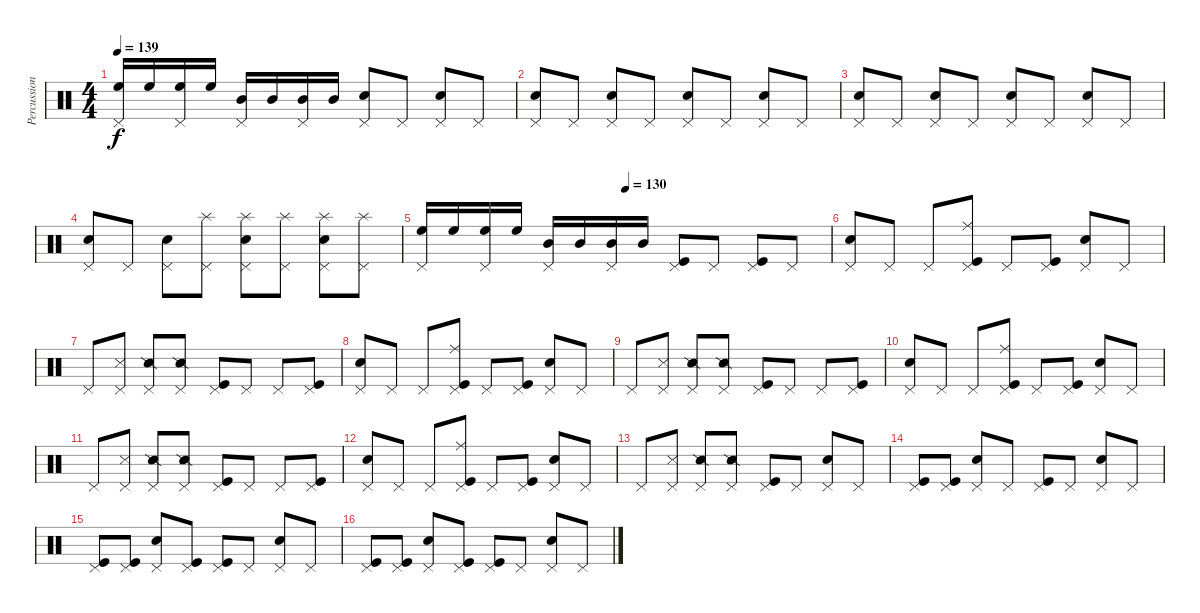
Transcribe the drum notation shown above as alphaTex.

\track ("Percussion" "Percussion") {instrument percussion}
\staff {score}
\articulation defaults
\ts (4 4)
\tempo 139
\clef neutral
\ks c
("High Floor Tom (hit)" "Pedal Hi-Hat (hit)").16{dy f} "High Floor Tom (hit)".16 ("High Floor Tom (hit)" "Pedal Hi-Hat (hit)").16 "High Floor Tom (hit)".16 ("Mid Tom (hit)" "Pedal Hi-Hat (hit)").16 "Mid Tom (hit)".16 ("Mid Tom (hit)" "Pedal Hi-Hat (hit)").16 "Mid Tom (hit)".16 ("Electric Snare (hit)" "Pedal Hi-Hat (hit)").8 "Pedal Hi-Hat (hit)".8 ("Electric Snare (hit)" "Pedal Hi-Hat (hit)").8 "Pedal Hi-Hat (hit)".8 |
("Electric Snare (hit)" "Pedal Hi-Hat (hit)").8 "Pedal Hi-Hat (hit)".8 ("Electric Snare (hit)" "Pedal Hi-Hat (hit)").8 "Pedal Hi-Hat (hit)".8 ("Electric Snare (hit)" "Pedal Hi-Hat (hit)").8 "Pedal Hi-Hat (hit)".8 ("Electric Snare (hit)" "Pedal Hi-Hat (hit)").8 "Pedal Hi-Hat (hit)".8 |
("Electric Snare (hit)" "Pedal Hi-Hat (hit)").8 "Pedal Hi-Hat (hit)".8 ("Electric Snare (hit)" "Pedal Hi-Hat (hit)").8 "Pedal Hi-Hat (hit)".8 ("Electric Snare (hit)" "Pedal Hi-Hat (hit)").8 "Pedal Hi-Hat (hit)".8 ("Electric Snare (hit)" "Pedal Hi-Hat (hit)").8 "Pedal Hi-Hat (hit)".8 |
("Electric Snare (hit)" "Pedal Hi-Hat (hit)").8 "Pedal Hi-Hat (hit)".8 ("Electric Snare (hit)" "Pedal Hi-Hat (hit)").8 ("Splash (hit)" "Pedal Hi-Hat (hit)").8 ("Splash (hit)" "Electric Snare (hit)" "Pedal Hi-Hat (hit)").8 ("Splash (hit)" "Pedal Hi-Hat (hit)").8 ("Splash (hit)" "Electric Snare (hit)" "Pedal Hi-Hat (hit)").8 ("Splash (hit)" "Pedal Hi-Hat (hit)").8 |
\tempo (130 0.5)
("High Floor Tom (hit)" "Pedal Hi-Hat (hit)").16 "High Floor Tom (hit)".16 ("High Floor Tom (hit)" "Pedal Hi-Hat (hit)").16 "High Floor Tom (hit)".16 ("Mid Tom (hit)" "Pedal Hi-Hat (hit)").16 "Mid Tom (hit)".16 ("Mid Tom (hit)" "Pedal Hi-Hat (hit)").16 "Mid Tom (hit)".16 ("Kick (hit)" "Pedal Hi-Hat (hit)").8 "Pedal Hi-Hat (hit)".8 ("Kick (hit)" "Pedal Hi-Hat (hit)").8 "Pedal Hi-Hat (hit)".8 |
("Electric Snare (hit)" "Pedal Hi-Hat (hit)").8 "Pedal Hi-Hat (hit)".8 "Pedal Hi-Hat (hit)".8 ("Ride (middle)" "Kick (hit)" "Pedal Hi-Hat (hit)").8 "Pedal Hi-Hat (hit)".8 ("Kick (hit)" "Pedal Hi-Hat (hit)").8 ("Electric Snare (hit)" "Pedal Hi-Hat (hit)").8 "Pedal Hi-Hat (hit)".8 |
"Pedal Hi-Hat (hit)".8 ("Snare (side stick) 3" "Pedal Hi-Hat (hit)").8 ("Snare (side stick) 2" "Pedal Hi-Hat (hit)").8 ("Snare (side stick) 2" "Pedal Hi-Hat (hit)").8 ("Kick (hit)" "Pedal Hi-Hat (hit)").8 "Pedal Hi-Hat (hit)".8 "Pedal Hi-Hat (hit)".8 ("Kick (hit)" "Pedal Hi-Hat (hit)").8 |
("Electric Snare (hit)" "Pedal Hi-Hat (hit)").8 "Pedal Hi-Hat (hit)".8 "Pedal Hi-Hat (hit)".8 ("Ride (middle)" "Kick (hit)" "Pedal Hi-Hat (hit)").8 "Pedal Hi-Hat (hit)".8 ("Kick (hit)" "Pedal Hi-Hat (hit)").8 ("Electric Snare (hit)" "Pedal Hi-Hat (hit)").8 "Pedal Hi-Hat (hit)".8 |
"Pedal Hi-Hat (hit)".8 ("Snare (side stick) 3" "Pedal Hi-Hat (hit)").8 ("Snare (side stick) 2" "Pedal Hi-Hat (hit)").8 ("Snare (side stick) 2" "Pedal Hi-Hat (hit)").8 ("Kick (hit)" "Pedal Hi-Hat (hit)").8 "Pedal Hi-Hat (hit)".8 "Pedal Hi-Hat (hit)".8 ("Kick (hit)" "Pedal Hi-Hat (hit)").8 |
("Electric Snare (hit)" "Pedal Hi-Hat (hit)").8 "Pedal Hi-Hat (hit)".8 "Pedal Hi-Hat (hit)".8 ("Ride (middle)" "Kick (hit)" "Pedal Hi-Hat (hit)").8 "Pedal Hi-Hat (hit)".8 ("Kick (hit)" "Pedal Hi-Hat (hit)").8 ("Electric Snare (hit)" "Pedal Hi-Hat (hit)").8 "Pedal Hi-Hat (hit)".8 |
"Pedal Hi-Hat (hit)".8 ("Snare (side stick) 3" "Pedal Hi-Hat (hit)").8 ("Snare (side stick) 2" "Pedal Hi-Hat (hit)").8 ("Snare (side stick) 2" "Pedal Hi-Hat (hit)").8 ("Kick (hit)" "Pedal Hi-Hat (hit)").8 "Pedal Hi-Hat (hit)".8 "Pedal Hi-Hat (hit)".8 ("Kick (hit)" "Pedal Hi-Hat (hit)").8 |
("Electric Snare (hit)" "Pedal Hi-Hat (hit)").8 "Pedal Hi-Hat (hit)".8 "Pedal Hi-Hat (hit)".8 ("Ride (middle)" "Kick (hit)" "Pedal Hi-Hat (hit)").8 "Pedal Hi-Hat (hit)".8 ("Kick (hit)" "Pedal Hi-Hat (hit)").8 ("Electric Snare (hit)" "Pedal Hi-Hat (hit)").8 "Pedal Hi-Hat (hit)".8 |
"Pedal Hi-Hat (hit)".8 ("Snare (side stick) 3" "Pedal Hi-Hat (hit)").8 ("Snare (side stick) 2" "Pedal Hi-Hat (hit)").8 ("Snare (side stick) 2" "Pedal Hi-Hat (hit)").8 ("Kick (hit)" "Pedal Hi-Hat (hit)").8 "Pedal Hi-Hat (hit)".8 ("Snare (hit) 2" "Pedal Hi-Hat (hit)").8 "Pedal Hi-Hat (hit)".8 |
("Kick (hit)" "Pedal Hi-Hat (hit)").8 ("Kick (hit)" "Pedal Hi-Hat (hit)").8 ("Snare (hit) 2" "Pedal Hi-Hat (hit)").8 "Pedal Hi-Hat (hit)".8 ("Kick (hit)" "Pedal Hi-Hat (hit)").8 "Pedal Hi-Hat (hit)".8 ("Snare (hit) 2" "Pedal Hi-Hat (hit)").8 "Pedal Hi-Hat (hit)".8 |
("Kick (hit)" "Pedal Hi-Hat (hit)").8 ("Kick (hit)" "Pedal Hi-Hat (hit)").8 ("Snare (hit) 2" "Pedal Hi-Hat (hit)").8 ("Kick (hit)" "Pedal Hi-Hat (hit)").8 ("Kick (hit)" "Pedal Hi-Hat (hit)").8 "Pedal Hi-Hat (hit)".8 ("Snare (hit) 2" "Pedal Hi-Hat (hit)").8 "Pedal Hi-Hat (hit)".8 |
("Kick (hit)" "Pedal Hi-Hat (hit)").8 ("Kick (hit)" "Pedal Hi-Hat (hit)").8 ("Snare (hit) 2" "Pedal Hi-Hat (hit)").8 ("Kick (hit)" "Pedal Hi-Hat (hit)").8 ("Kick (hit)" "Pedal Hi-Hat (hit)").8 "Pedal Hi-Hat (hit)".8 ("Snare (hit) 2" "Pedal Hi-Hat (hit)").8 "Pedal Hi-Hat (hit)".8
